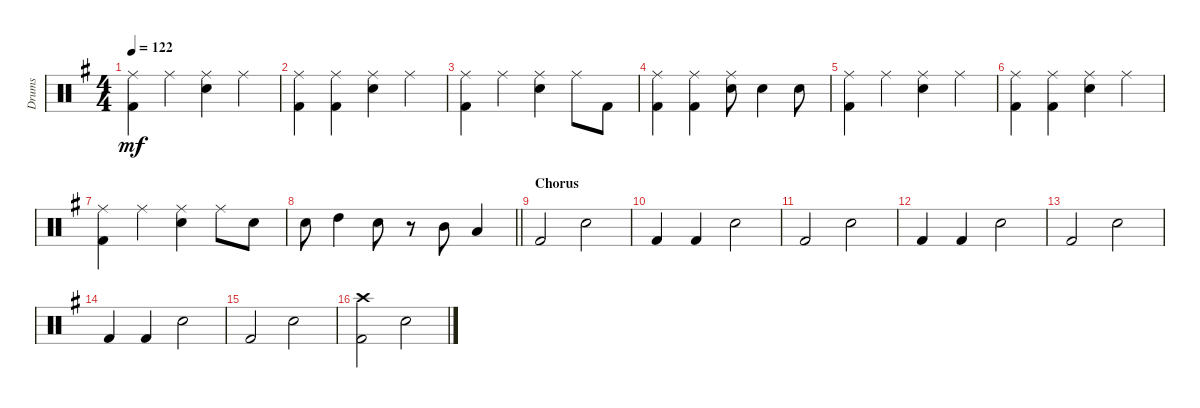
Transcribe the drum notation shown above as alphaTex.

\track ("Drums" "Drums") {instrument percussion}
\staff {score}
\articulation defaults
\ts (4 4)
\tempo 122
\clef neutral
\ks eminor
("Ride (middle)" "Kick (hit) 2").4{dy mf} "Ride (middle)".4 ("Ride (middle)" "Electric Snare (hit)").4 "Ride (middle)".4 |
("Ride (middle)" "Kick (hit) 2").4 ("Ride (middle)" "Kick (hit) 2").4 ("Ride (middle)" "Electric Snare (hit)").4 "Ride (middle)".4 |
("Ride (middle)" "Kick (hit) 2").4 "Ride (middle)".4 ("Ride (middle)" "Electric Snare (hit)").4 "Ride (middle)".8 "Kick (hit) 2".8 |
("Ride (middle)" "Kick (hit) 2").4 ("Ride (middle)" "Kick (hit) 2").4 ("Ride (middle)" "Electric Snare (hit)").8 "Electric Snare (hit)".4 "Electric Snare (hit)".8 |
("Ride (middle)" "Kick (hit) 2").4 "Ride (middle)".4 ("Ride (middle)" "Electric Snare (hit)").4 "Ride (middle)".4 |
("Ride (middle)" "Kick (hit) 2").4 ("Ride (middle)" "Kick (hit) 2").4 ("Ride (middle)" "Electric Snare (hit)").4 "Ride (middle)".4 |
("Ride (middle)" "Kick (hit) 2").4 "Ride (middle)".4 ("Ride (middle)" "Electric Snare (hit)").4 "Ride (middle)".8 "Electric Snare (hit)".8 |
\barLineRight lightlight "Electric Snare (hit)".8 "High Tom (hit)".4 "Electric Snare (hit)".8
r.8 "Mid Tom (hit)".8 "Low Tom (hit)".4 |
\section ("" "Chorus")
"Kick (hit) 2".2 "Electric Snare (hit)".2 |
"Kick (hit) 2".4 "Kick (hit) 2".4 "Electric Snare (hit)".2 |
"Kick (hit) 2".2 "Electric Snare (hit)".2 |
"Kick (hit) 2".4 "Kick (hit) 2".4 "Electric Snare (hit)".2 |
"Kick (hit) 2".2 "Electric Snare (hit)".2 |
"Kick (hit) 2".4 "Kick (hit) 2".4 "Electric Snare (hit)".2 |
"Kick (hit) 2".2 "Electric Snare (hit)".2 |
("Crash high (hit)" "Kick (hit) 2").2 "Electric Snare (hit)".2
